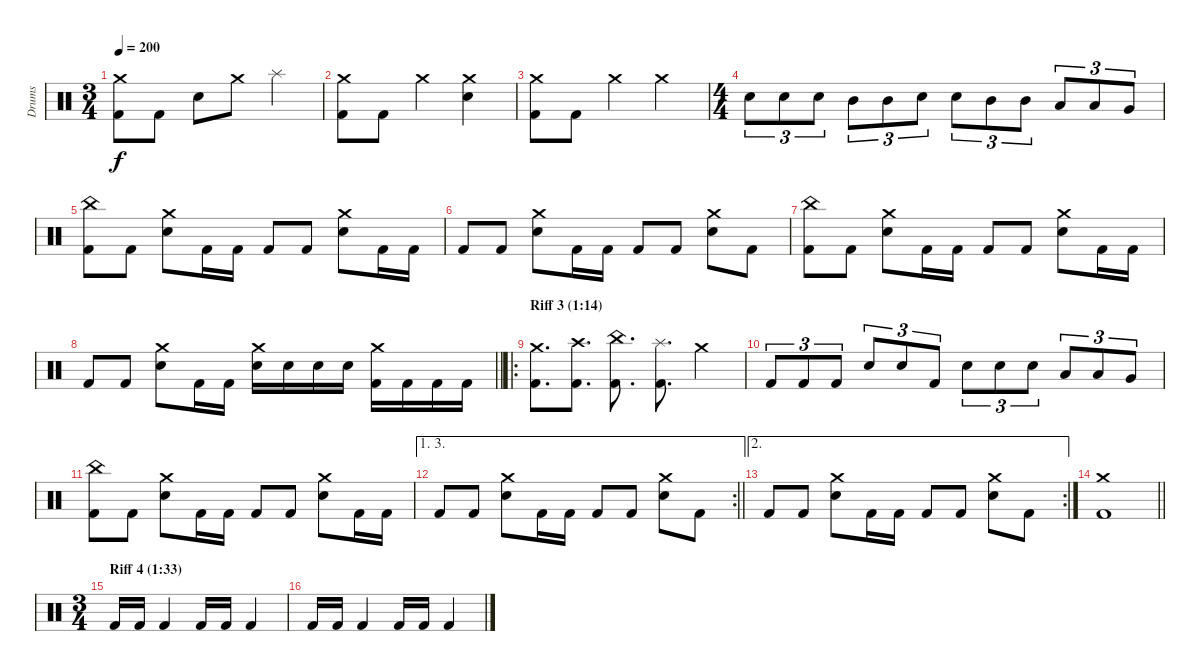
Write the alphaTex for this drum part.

\track ("Drums" "Drums") {instrument percussion}
\staff {score}
\articulation defaults
\ts (3 4)
\tempo 200
\clef neutral
\ks c
("Crash medium (hit)" "Kick (hit) 2").8{dy f} "Kick (hit) 2".8 "Electric Snare (hit)".8 "Crash medium (hit)".8 "Splash (hit)".4 |
("Crash medium (hit)" "Kick (hit) 2").8 "Kick (hit) 2".8 "Crash medium (hit)".4 ("Crash medium (hit)" "Electric Snare (hit)").4 |
("Crash medium (hit)" "Kick (hit) 2").8 "Kick (hit) 2".8 "Crash medium (hit)".4 "Crash medium (hit)".4 |
\ts (4 4)
"Electric Snare (hit)".8{tu (3 2)} "Electric Snare (hit)".8{tu (3 2)} "Electric Snare (hit)".8{tu (3 2)} "Mid Tom (hit)".8{tu (3 2)} "Mid Tom (hit)".8{tu (3 2)} "Electric Snare (hit)".8{tu (3 2)} "Electric Snare (hit)".8{tu (3 2)} "Mid Tom (hit)".8{tu (3 2)} "Mid Tom (hit)".8{tu (3 2)} "Low Tom (hit)".8{tu (3 2)} "Low Tom (hit)".8{tu (3 2)} "Very Low Tom (hit)".8{tu (3 2)} |
("China (hit)" "Kick (hit) 2").8 "Kick (hit) 2".8 ("Crash medium (hit)" "Electric Snare (hit)").8 "Kick (hit) 2".16 "Kick (hit) 2".16 "Kick (hit) 2".8 "Kick (hit) 2".8 ("Crash medium (hit)" "Electric Snare (hit)").8 "Kick (hit) 2".16 "Kick (hit) 2".16 |
"Kick (hit) 2".8 "Kick (hit) 2".8 ("Crash medium (hit)" "Electric Snare (hit)").8 "Kick (hit) 2".16 "Kick (hit) 2".16 "Kick (hit) 2".8 "Kick (hit) 2".8 ("Crash medium (hit)" "Electric Snare (hit)").8 "Kick (hit) 2".8 |
("China (hit)" "Kick (hit) 2").8 "Kick (hit) 2".8 ("Crash medium (hit)" "Electric Snare (hit)").8 "Kick (hit) 2".16 "Kick (hit) 2".16 "Kick (hit) 2".8 "Kick (hit) 2".8 ("Crash medium (hit)" "Electric Snare (hit)").8 "Kick (hit) 2".16 "Kick (hit) 2".16 |
\barLineRight lightlight "Kick (hit) 2".8 "Kick (hit) 2".8
("Crash medium (hit)" "Electric Snare (hit)").8 "Kick (hit) 2".16 "Kick (hit) 2".16 ("Crash medium (hit)" "Electric Snare (hit)").16 "Electric Snare (hit)".16 "Electric Snare (hit)".16 "Electric Snare (hit)".16 ("Crash medium (hit)" "Kick (hit) 2").16 "Kick (hit) 2".16 "Kick (hit) 2".16 "Kick (hit) 2".16 |
\ro
\section ("" "Riff 3 (1:14)")
("Crash medium (hit)" "Kick (hit) 2").8{d} ("Crash high (hit)" "Kick (hit) 2").8{d} ("China (hit)" "Kick (hit) 2").8{d} ("Splash (hit)" "Kick (hit) 2").8{d} "Crash medium (hit)".4 |
"Kick (hit) 2".8{tu (3 2)} "Kick (hit) 2".8{tu (3 2)} "Kick (hit) 2".8{tu (3 2)} "Electric Snare (hit)".8{tu (3 2)} "Electric Snare (hit)".8{tu (3 2)} "Kick (hit) 2".8{tu (3 2)} "Electric Snare (hit)".8{tu (3 2)} "Electric Snare (hit)".8{tu (3 2)} "Electric Snare (hit)".8{tu (3 2)} "Low Tom (hit)".8{tu (3 2)} "Low Tom (hit)".8{tu (3 2)} "Very Low Tom (hit)".8{tu (3 2)} |
("China (hit)" "Kick (hit) 2").8 "Kick (hit) 2".8 ("Crash medium (hit)" "Electric Snare (hit)").8 "Kick (hit) 2".16 "Kick (hit) 2".16 "Kick (hit) 2".8 "Kick (hit) 2".8 ("Crash medium (hit)" "Electric Snare (hit)").8 "Kick (hit) 2".16 "Kick (hit) 2".16 |
\ae (1 3)
\rc 2
\barLineRight lightlight "Kick (hit) 2".8 "Kick (hit) 2".8
("Crash medium (hit)" "Electric Snare (hit)").8 "Kick (hit) 2".16 "Kick (hit) 2".16 "Kick (hit) 2".8 "Kick (hit) 2".8 ("Crash medium (hit)" "Electric Snare (hit)").8 "Kick (hit) 2".8 |
\ae 2
\rc 2 "Kick (hit) 2".8 "Kick (hit) 2".8
("Crash medium (hit)" "Electric Snare (hit)").8 "Kick (hit) 2".16 "Kick (hit) 2".16 "Kick (hit) 2".8 "Kick (hit) 2".8 ("Crash medium (hit)" "Electric Snare (hit)").8 "Kick (hit) 2".8 |
\barLineRight lightlight
("Crash medium (hit)" "Kick (hit) 2").1 |
\ts (3 4)
\section ("" "Riff 4 (1:33)")
"Kick (hit) 2".16 "Kick (hit) 2".16 "Kick (hit) 2".4 "Kick (hit) 2".16 "Kick (hit) 2".16 "Kick (hit) 2".4 |
"Kick (hit) 2".16 "Kick (hit) 2".16 "Kick (hit) 2".4 "Kick (hit) 2".16 "Kick (hit) 2".16 "Kick (hit) 2".4
